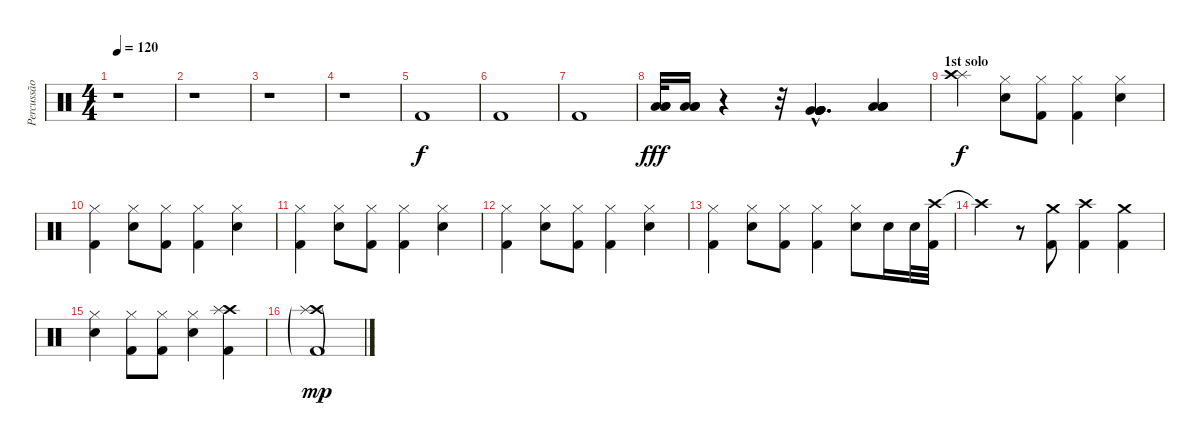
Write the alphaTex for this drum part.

\track ("Percussão" "Percussão") {instrument percussion}
\staff {score}
\articulation defaults
\ts (4 4)
\tempo 120
\clef neutral
\ks c
r.1{dy f} |
r.1 |
r.1 |
r.1 |
"Kick (hit) 2".1 |
"Kick (hit) 2".1 |
"Kick (hit) 2".1 |
("Low Tom (hit)" "Low Tom (hit)" "Low Tom (hit)").32{dy fff} ("Low Tom (hit)" "Low Tom (hit)" "Low Tom (hit)").16 r.4 r.32 ("Very Low Tom (hit)"{hac} "Very Low Tom (hit)"{hac} "Very Low Tom (hit)"{hac} "Very Low Tom (hit)"{hac}).4{d} ("Low Floor Tom (hit)" "Low Floor Tom (hit)" "Low Floor Tom (hit)").4 |
\section ("" "1st solo")
("Splash (hit)" "Crash high (hit)").4{dy f} ("Snare (hit) 2" "Hi-Hat (closed)").8 ("Kick (hit) 2" "Hi-Hat (closed)").8 ("Kick (hit) 2" "Hi-Hat (closed)").4 ("Snare (hit) 2" "Hi-Hat (closed)").4 |
("Kick (hit) 2" "Hi-Hat (closed)").4 ("Snare (hit) 2" "Hi-Hat (closed)").8 ("Kick (hit) 2" "Hi-Hat (closed)").8 ("Kick (hit) 2" "Hi-Hat (closed)").4 ("Snare (hit) 2" "Hi-Hat (closed)").4 |
("Kick (hit) 2" "Hi-Hat (closed)").4 ("Snare (hit) 2" "Hi-Hat (closed)").8 ("Kick (hit) 2" "Hi-Hat (closed)").8 ("Kick (hit) 2" "Hi-Hat (closed)").4 ("Snare (hit) 2" "Hi-Hat (closed)").4 |
("Kick (hit) 2" "Hi-Hat (closed)").4 ("Snare (hit) 2" "Hi-Hat (closed)").8 ("Kick (hit) 2" "Hi-Hat (closed)").8 ("Kick (hit) 2" "Hi-Hat (closed)").4 ("Snare (hit) 2" "Hi-Hat (closed)").4 |
("Kick (hit) 2" "Hi-Hat (closed)").4 ("Snare (hit) 2" "Hi-Hat (closed)").8 ("Kick (hit) 2" "Hi-Hat (closed)").8 ("Kick (hit) 2" "Hi-Hat (closed)").4 ("Snare (hit) 2" "Hi-Hat (closed)").8 "Snare (hit) 2".16 "Snare (hit) 2".32 ("Crash high (hit)" "Kick (hit) 2").32 |
"Crash high (hit)"{t}.4 r.8 ("Crash medium (hit)" "Kick (hit) 2").8 ("Crash high (hit)" "Kick (hit) 2").4 ("Crash medium (hit)" "Kick (hit) 2").4 |
("Snare (hit) 2" "Hi-Hat (closed)").4 ("Kick (hit) 2" "Hi-Hat (closed)").8 ("Kick (hit) 2" "Hi-Hat (closed)").8 ("Snare (hit) 2" "Hi-Hat (closed)").4 ("Crash high (hit)" "Splash (hit)" "Kick (hit) 2").4 |
("Crash high (hit)"{g} "Splash (hit)"{g} "Kick (hit) 2"{g}).1{dy mp}
